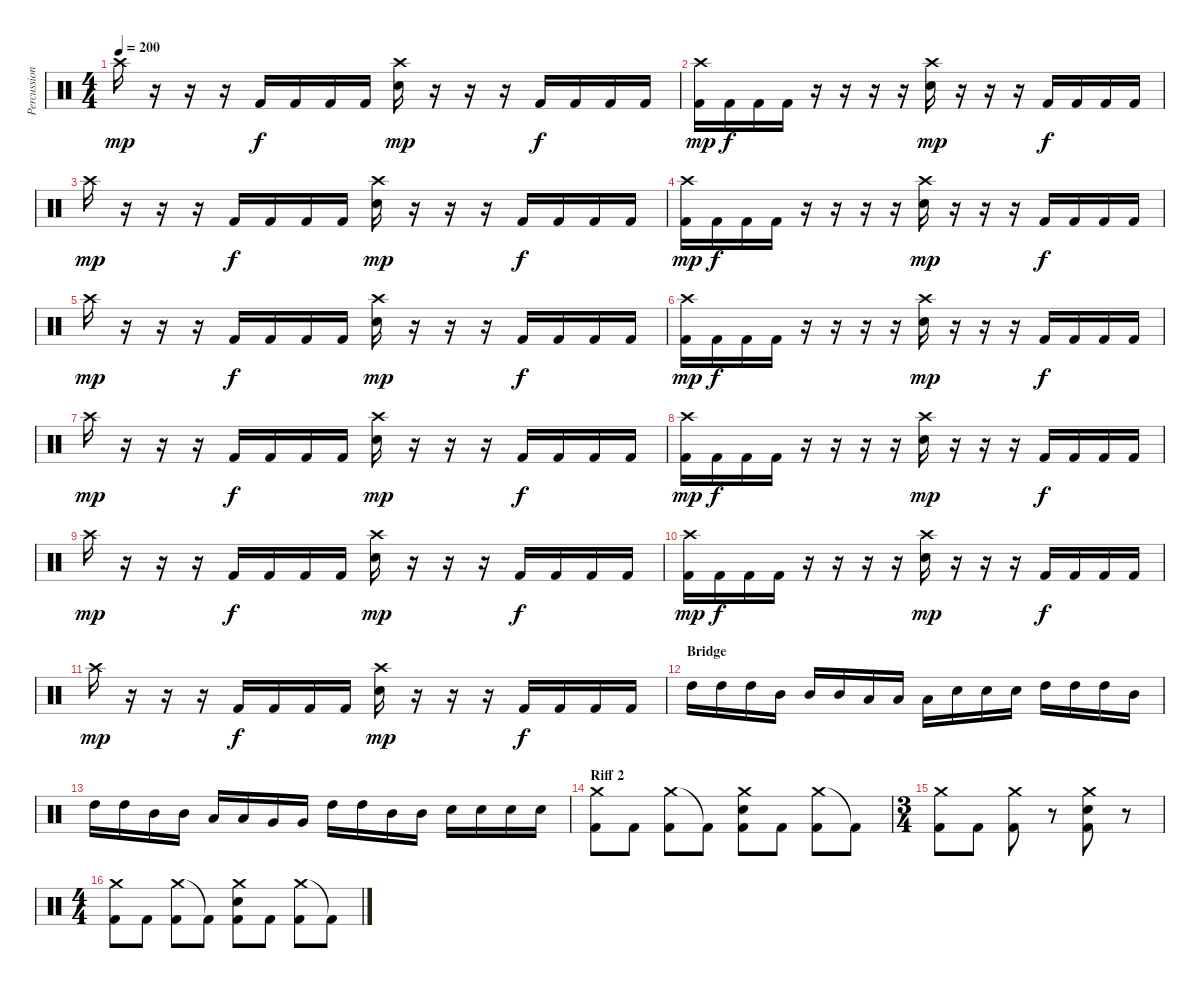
\track ("Percussions ( Brylle )" "Percussion") {instrument percussion}
\staff {score}
\articulation defaults
\ts (4 4)
\tempo 200
\clef neutral
\ks c "Crash high (hit)".16{dy mp}
r.16 r.16 r.16 "Kick (hit) 2".16{dy f} "Kick (hit) 2".16 "Kick (hit) 2".16 "Kick (hit) 2".16 ("Crash high (hit)" "Electric Snare (hit)").16{dy mp} r.16 r.16 r.16 "Kick (hit) 2".16{dy f} "Kick (hit) 2".16 "Kick (hit) 2".16 "Kick (hit) 2".16 |
("Crash high (hit)" "Kick (hit) 2").16{dy mp} "Kick (hit) 2".16{dy f} "Kick (hit) 2".16 "Kick (hit) 2".16 r.16 r.16 r.16 r.16 ("Crash high (hit)" "Electric Snare (hit)").16{dy mp} r.16 r.16 r.16 "Kick (hit) 2".16{dy f} "Kick (hit) 2".16 "Kick (hit) 2".16 "Kick (hit) 2".16 |
"Crash high (hit)".16{dy mp} r.16 r.16 r.16 "Kick (hit) 2".16{dy f} "Kick (hit) 2".16 "Kick (hit) 2".16 "Kick (hit) 2".16 ("Crash high (hit)" "Electric Snare (hit)").16{dy mp} r.16 r.16 r.16 "Kick (hit) 2".16{dy f} "Kick (hit) 2".16 "Kick (hit) 2".16 "Kick (hit) 2".16 |
("Crash high (hit)" "Kick (hit) 2").16{dy mp} "Kick (hit) 2".16{dy f} "Kick (hit) 2".16 "Kick (hit) 2".16 r.16 r.16 r.16 r.16 ("Crash high (hit)" "Electric Snare (hit)").16{dy mp} r.16 r.16 r.16 "Kick (hit) 2".16{dy f} "Kick (hit) 2".16 "Kick (hit) 2".16 "Kick (hit) 2".16 |
"Crash high (hit)".16{dy mp} r.16 r.16 r.16 "Kick (hit) 2".16{dy f} "Kick (hit) 2".16 "Kick (hit) 2".16 "Kick (hit) 2".16 ("Crash high (hit)" "Electric Snare (hit)").16{dy mp} r.16 r.16 r.16 "Kick (hit) 2".16{dy f} "Kick (hit) 2".16 "Kick (hit) 2".16 "Kick (hit) 2".16 |
("Crash high (hit)" "Kick (hit) 2").16{dy mp} "Kick (hit) 2".16{dy f} "Kick (hit) 2".16 "Kick (hit) 2".16 r.16 r.16 r.16 r.16 ("Crash high (hit)" "Electric Snare (hit)").16{dy mp} r.16 r.16 r.16 "Kick (hit) 2".16{dy f} "Kick (hit) 2".16 "Kick (hit) 2".16 "Kick (hit) 2".16 |
"Crash high (hit)".16{dy mp} r.16 r.16 r.16 "Kick (hit) 2".16{dy f} "Kick (hit) 2".16 "Kick (hit) 2".16 "Kick (hit) 2".16 ("Crash high (hit)" "Electric Snare (hit)").16{dy mp} r.16 r.16 r.16 "Kick (hit) 2".16{dy f} "Kick (hit) 2".16 "Kick (hit) 2".16 "Kick (hit) 2".16 |
("Crash high (hit)" "Kick (hit) 2").16{dy mp} "Kick (hit) 2".16{dy f} "Kick (hit) 2".16 "Kick (hit) 2".16 r.16 r.16 r.16 r.16 ("Crash high (hit)" "Electric Snare (hit)").16{dy mp} r.16 r.16 r.16 "Kick (hit) 2".16{dy f} "Kick (hit) 2".16 "Kick (hit) 2".16 "Kick (hit) 2".16 |
"Crash high (hit)".16{dy mp} r.16 r.16 r.16 "Kick (hit) 2".16{dy f} "Kick (hit) 2".16 "Kick (hit) 2".16 "Kick (hit) 2".16 ("Crash high (hit)" "Electric Snare (hit)").16{dy mp} r.16 r.16 r.16 "Kick (hit) 2".16{dy f} "Kick (hit) 2".16 "Kick (hit) 2".16 "Kick (hit) 2".16 |
("Crash high (hit)" "Kick (hit) 2").16{dy mp} "Kick (hit) 2".16{dy f} "Kick (hit) 2".16 "Kick (hit) 2".16 r.16 r.16 r.16 r.16 ("Crash high (hit)" "Electric Snare (hit)").16{dy mp} r.16 r.16 r.16 "Kick (hit) 2".16{dy f} "Kick (hit) 2".16 "Kick (hit) 2".16 "Kick (hit) 2".16 |
"Crash high (hit)".16{dy mp} r.16 r.16 r.16 "Kick (hit) 2".16{dy f} "Kick (hit) 2".16 "Kick (hit) 2".16 "Kick (hit) 2".16 ("Crash high (hit)" "Electric Snare (hit)").16{dy mp} r.16 r.16 r.16 "Kick (hit) 2".16{dy f} "Kick (hit) 2".16 "Kick (hit) 2".16 "Kick (hit) 2".16 |
\section ("" "Bridge")
"High Tom (hit)".16 "High Tom (hit)".16 "High Tom (hit)".16 "Mid Tom (hit)".16 "Mid Tom (hit)".16 "Mid Tom (hit)".16 "Low Tom (hit)".16 "Low Tom (hit)".16 "Low Tom (hit)".16 "Electric Snare (hit)".16 "Electric Snare (hit)".16 "Electric Snare (hit)".16 "High Tom (hit)".16 "High Tom (hit)".16 "High Tom (hit)".16 "Mid Tom (hit)".16 |
"High Tom (hit)".16 "High Tom (hit)".16 "Mid Tom (hit)".16 "Mid Tom (hit)".16 "Low Tom (hit)".16 "Low Tom (hit)".16 "Very Low Tom (hit)".16 "Very Low Tom (hit)".16 "High Tom (hit)".16 "High Tom (hit)".16 "Mid Tom (hit)".16 "Mid Tom (hit)".16 "Electric Snare (hit)".16 "Electric Snare (hit)".16 "Electric Snare (hit)".16 "Electric Snare (hit)".16 |
\section ("" "Riff 2")
("Crash medium (hit)" "Kick (hit) 2").8{volume 3} "Kick (hit) 2".8 ("Crash medium (hit)" "Kick (hit) 2").8 "Kick (hit) 2"{t}.8 ("Crash medium (hit)" "Electric Snare (hit)" "Kick (hit) 2").8 "Kick (hit) 2".8 ("Crash medium (hit)" "Kick (hit) 2").8 "Kick (hit) 2"{t}.8 |
\ts (3 4)
("Crash medium (hit)" "Kick (hit) 2").8 "Kick (hit) 2".8 ("Crash medium (hit)" "Kick (hit) 2").8 r.8 ("Crash medium (hit)" "Electric Snare (hit)" "Kick (hit) 2").8 r.8 |
\ts (4 4)
("Crash medium (hit)" "Kick (hit) 2").8 "Kick (hit) 2".8 ("Crash medium (hit)" "Kick (hit) 2").8 "Kick (hit) 2"{t}.8 ("Crash medium (hit)" "Electric Snare (hit)" "Kick (hit) 2").8 "Kick (hit) 2".8 ("Crash medium (hit)" "Kick (hit) 2").8 "Kick (hit) 2"{t}.8
